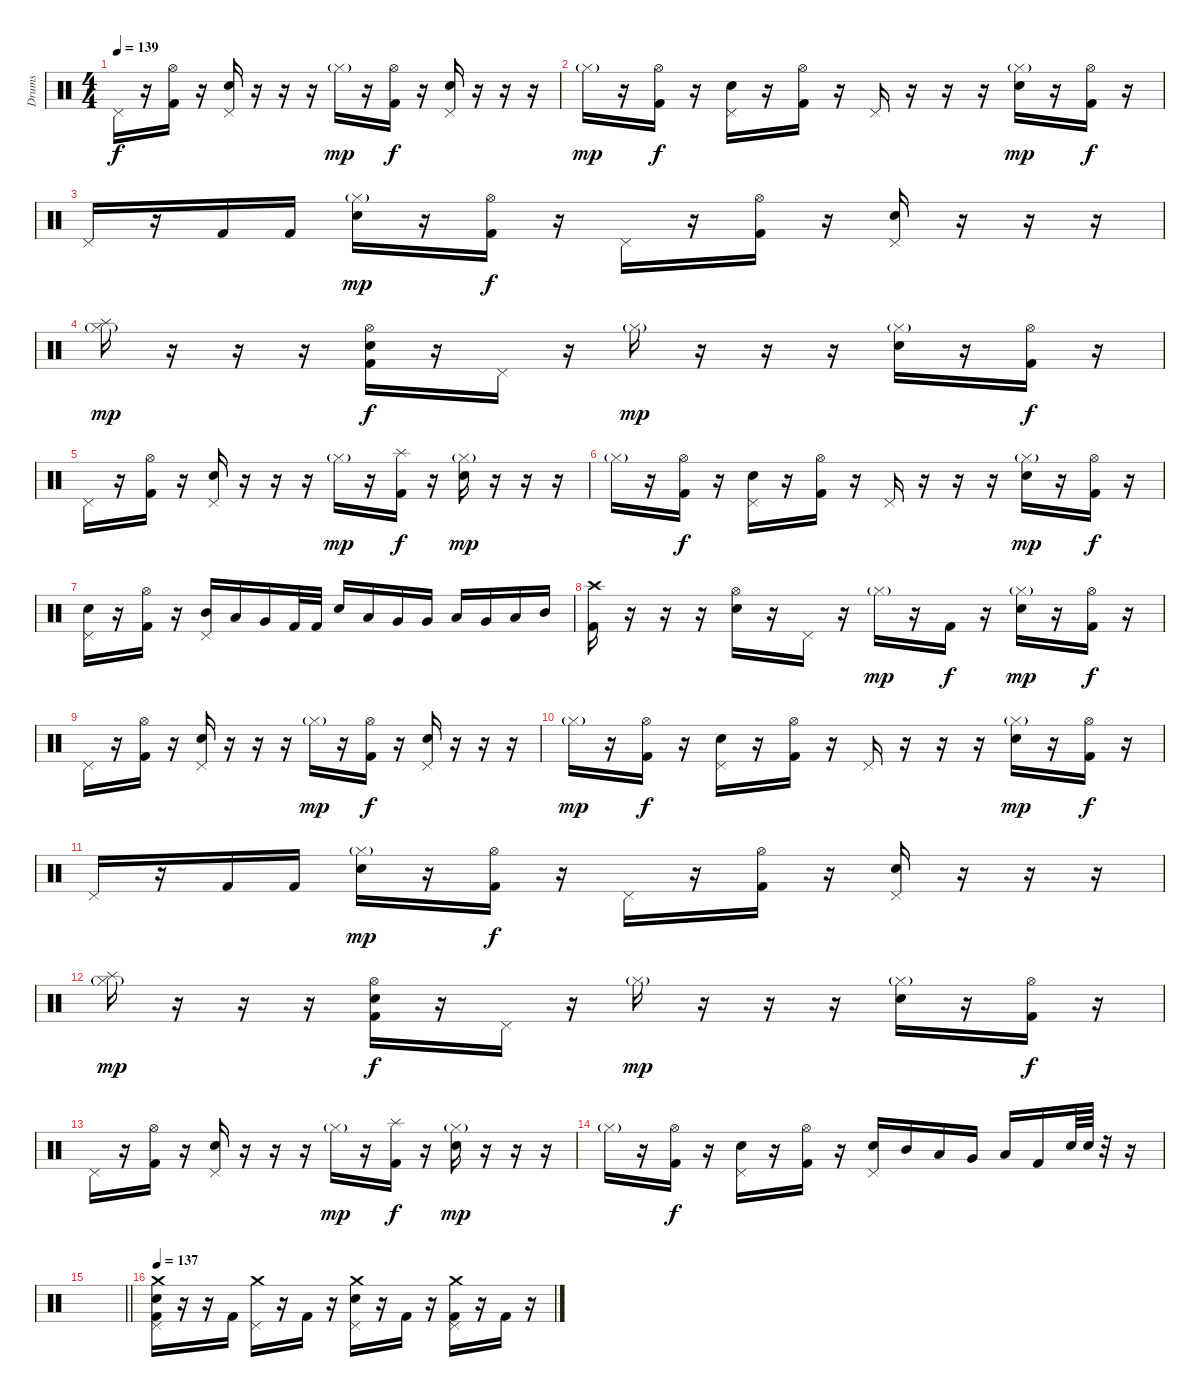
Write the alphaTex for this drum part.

\track ("Drums" "Drums") {instrument percussion}
\staff {score}
\articulation defaults
\ts (4 4)
\tempo 139
\clef neutral
\ks c "Pedal Hi-Hat (hit)".16{dy f}
r.16 ("Hi-Hat (open)" "Kick (hit) 2").16 r.16 ("Pedal Hi-Hat (hit)" "Electric Snare (hit)").16 r.16 r.16 r.16 "Hi-Hat (closed)"{g}.16{dy mp} r.16 ("Hi-Hat (open)" "Kick (hit) 2").16{dy f} r.16 ("Pedal Hi-Hat (hit)" "Electric Snare (hit)").16 r.16 r.16 r.16 |
"Hi-Hat (closed)"{g}.16{dy mp} r.16 ("Hi-Hat (open)" "Kick (hit) 2").16{dy f} r.16 ("Pedal Hi-Hat (hit)" "Electric Snare (hit)").16 r.16 ("Hi-Hat (open)" "Kick (hit) 2").16 r.16 "Pedal Hi-Hat (hit)".16 r.16 r.16 r.16 ("Hi-Hat (closed)"{g} "Electric Snare (hit)").16{dy mp} r.16 ("Hi-Hat (open)" "Kick (hit) 2").16{dy f} r.16 |
"Pedal Hi-Hat (hit)".16 r.16 "Kick (hit) 2".16 "Kick (hit) 2".16 ("Hi-Hat (closed)"{g} "Electric Snare (hit)").16{dy mp} r.16 ("Hi-Hat (open)" "Kick (hit) 2").16{dy f} r.16 "Pedal Hi-Hat (hit)".16 r.16 ("Hi-Hat (open)" "Kick (hit) 2").16 r.16 ("Pedal Hi-Hat (hit)" "Electric Snare (hit)").16 r.16 r.16 r.16 |
("Splash (hit)" "Hi-Hat (closed)"{g}).16{dy mp} r.16 r.16 r.16 ("Hi-Hat (open)" "Electric Snare (hit)" "Kick (hit) 2").16{dy f} r.16 "Pedal Hi-Hat (hit)".16 r.16 "Hi-Hat (closed)"{g}.16{dy mp} r.16 r.16 r.16 ("Hi-Hat (closed)"{g} "Electric Snare (hit)").16 r.16 ("Hi-Hat (open)" "Kick (hit) 2").16{dy f} r.16 |
"Pedal Hi-Hat (hit)".16 r.16 ("Hi-Hat (open)" "Kick (hit) 2").16 r.16 ("Pedal Hi-Hat (hit)" "Electric Snare (hit)").16 r.16 r.16 r.16 "Hi-Hat (closed)"{g}.16{dy mp} r.16 ("Splash (hit)" "Kick (hit) 2").16{dy f} r.16 ("Hi-Hat (closed)"{g} "Electric Snare (hit)").16{dy mp} r.16 r.16 r.16 |
"Hi-Hat (closed)"{g}.16 r.16 ("Hi-Hat (open)" "Kick (hit) 2").16{dy f} r.16 ("Pedal Hi-Hat (hit)" "Electric Snare (hit)").16 r.16 ("Hi-Hat (open)" "Kick (hit) 2").16 r.16 "Pedal Hi-Hat (hit)".16 r.16 r.16 r.16 ("Hi-Hat (closed)"{g} "Electric Snare (hit)").16{dy mp} r.16 ("Hi-Hat (open)" "Kick (hit) 2").16{dy f} r.16 |
("Pedal Hi-Hat (hit)" "Electric Snare (hit)").16 r.16 ("Hi-Hat (open)" "Kick (hit) 2").16 r.16 ("Mid Tom (hit)" "Pedal Hi-Hat (hit)").16 "Low Tom (hit)".16 "Very Low Tom (hit)".16 "Kick (hit) 2".32 "Kick (hit) 2".32 "Electric Snare (hit)".16 "Low Tom (hit)".16 "Very Low Tom (hit)".16 "Very Low Tom (hit)".16 "Low Tom (hit)".16 "Very Low Tom (hit)".16 "Low Floor Tom (hit)".16 "Mid Tom (hit)".16 |
("Crash high (hit)" "Kick (hit) 2").16 r.16 r.16 r.16 ("Hi-Hat (open)" "Electric Snare (hit)").16 r.16 "Pedal Hi-Hat (hit)".16 r.16 "Hi-Hat (closed)"{g}.16{dy mp} r.16 "Kick (hit) 2".16{dy f} r.16 ("Hi-Hat (closed)"{g} "Electric Snare (hit)").16{dy mp} r.16 ("Hi-Hat (open)" "Kick (hit) 2").16{dy f} r.16 |
"Pedal Hi-Hat (hit)".16 r.16 ("Hi-Hat (open)" "Kick (hit) 2").16 r.16 ("Pedal Hi-Hat (hit)" "Electric Snare (hit)").16 r.16 r.16 r.16 "Hi-Hat (closed)"{g}.16{dy mp} r.16 ("Hi-Hat (open)" "Kick (hit) 2").16{dy f} r.16 ("Pedal Hi-Hat (hit)" "Electric Snare (hit)").16 r.16 r.16 r.16 |
"Hi-Hat (closed)"{g}.16{dy mp} r.16 ("Hi-Hat (open)" "Kick (hit) 2").16{dy f} r.16 ("Pedal Hi-Hat (hit)" "Electric Snare (hit)").16 r.16 ("Hi-Hat (open)" "Kick (hit) 2").16 r.16 "Pedal Hi-Hat (hit)".16 r.16 r.16 r.16 ("Hi-Hat (closed)"{g} "Electric Snare (hit)").16{dy mp} r.16 ("Hi-Hat (open)" "Kick (hit) 2").16{dy f} r.16 |
"Pedal Hi-Hat (hit)".16 r.16 "Kick (hit) 2".16 "Kick (hit) 2".16 ("Hi-Hat (closed)"{g} "Electric Snare (hit)").16{dy mp} r.16 ("Hi-Hat (open)" "Kick (hit) 2").16{dy f} r.16 "Pedal Hi-Hat (hit)".16 r.16 ("Hi-Hat (open)" "Kick (hit) 2").16 r.16 ("Pedal Hi-Hat (hit)" "Electric Snare (hit)").16 r.16 r.16 r.16 |
("Splash (hit)" "Hi-Hat (closed)"{g}).16{dy mp} r.16 r.16 r.16 ("Hi-Hat (open)" "Electric Snare (hit)" "Kick (hit) 2").16{dy f} r.16 "Pedal Hi-Hat (hit)".16 r.16 "Hi-Hat (closed)"{g}.16{dy mp} r.16 r.16 r.16 ("Hi-Hat (closed)"{g} "Electric Snare (hit)").16 r.16 ("Hi-Hat (open)" "Kick (hit) 2").16{dy f} r.16 |
"Pedal Hi-Hat (hit)".16 r.16 ("Hi-Hat (open)" "Kick (hit) 2").16 r.16 ("Pedal Hi-Hat (hit)" "Electric Snare (hit)").16 r.16 r.16 r.16 "Hi-Hat (closed)"{g}.16{dy mp} r.16 ("Splash (hit)" "Kick (hit) 2").16{dy f} r.16 ("Hi-Hat (closed)"{g} "Electric Snare (hit)").16{dy mp} r.16 r.16 r.16 |
"Hi-Hat (closed)"{g}.16 r.16 ("Hi-Hat (open)" "Kick (hit) 2").16{dy f} r.16 ("Pedal Hi-Hat (hit)" "Electric Snare (hit)").16 r.16 ("Hi-Hat (open)" "Kick (hit) 2").16 r.16 ("Pedal Hi-Hat (hit)" "Electric Snare (hit)").16 "Mid Tom (hit)".16 "Low Tom (hit)".16 "Very Low Tom (hit)".16 "Low Floor Tom (hit)".16 "Kick (hit) 2".16 "Electric Snare (hit)".64 "Electric Snare (hit)".64 r.32 r.16 |
\barLineRight lightlight
|
\section ("" "")
\tempo 137
("Crash medium (hit)" "Pedal Hi-Hat (hit)" "Electric Snare (hit)" "Kick (hit) 2").16 r.16 r.16 "Kick (hit) 2".16 ("Crash medium (hit)" "Pedal Hi-Hat (hit)").16 r.16 "Kick (hit) 2".16 r.16 ("Crash medium (hit)" "Pedal Hi-Hat (hit)" "Electric Snare (hit)").16 r.16 "Kick (hit) 2".16 r.16 ("Crash medium (hit)" "Pedal Hi-Hat (hit)" "Kick (hit) 2").16 r.16 "Kick (hit) 2".16 r.16
